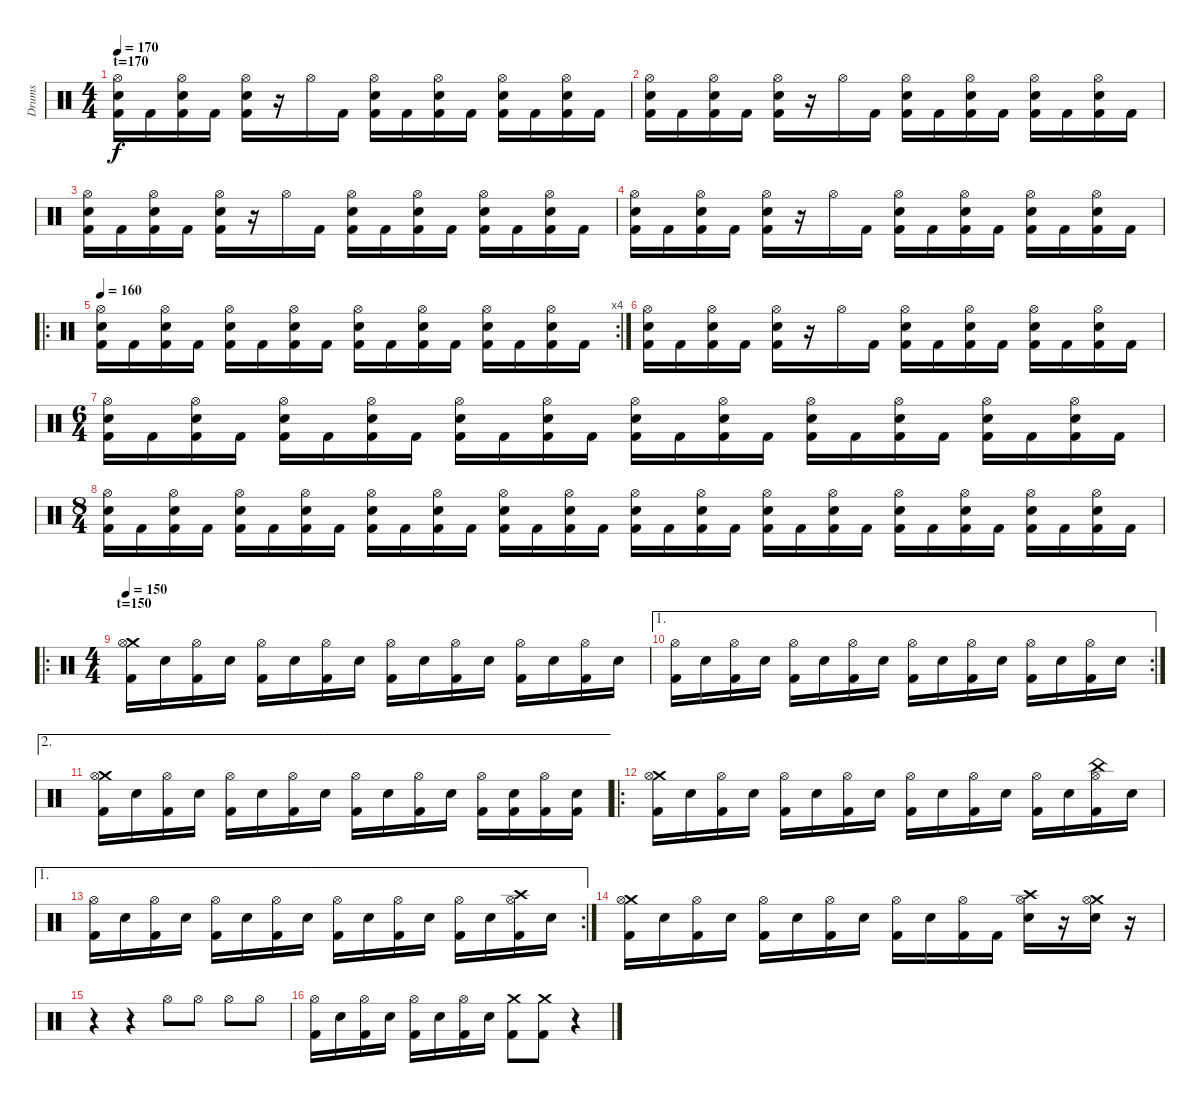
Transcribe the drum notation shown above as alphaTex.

\track ("Drums" "Drums") {instrument percussion}
\staff {score}
\articulation defaults
\ts (4 4)
\section ("" "t=170")
\tempo 170
\clef neutral
\ks c
("Hi-Hat (open)" "Electric Snare (hit)" "Kick (hit) 2").16{dy f} "Kick (hit) 2".16 ("Hi-Hat (open)" "Electric Snare (hit)" "Kick (hit) 2").16 "Kick (hit) 2".16 ("Hi-Hat (open)" "Electric Snare (hit)" "Kick (hit) 2").16 r.16 "Hi-Hat (open)".16 "Kick (hit) 2".16 ("Hi-Hat (open)" "Electric Snare (hit)" "Kick (hit) 2").16 "Kick (hit) 2".16 ("Hi-Hat (open)" "Electric Snare (hit)" "Kick (hit) 2").16 "Kick (hit) 2".16 ("Hi-Hat (open)" "Electric Snare (hit)" "Kick (hit) 2").16 "Kick (hit) 2".16 ("Hi-Hat (open)" "Electric Snare (hit)" "Kick (hit) 2").16 "Kick (hit) 2".16 |
("Hi-Hat (open)" "Electric Snare (hit)" "Kick (hit) 2").16 "Kick (hit) 2".16 ("Hi-Hat (open)" "Electric Snare (hit)" "Kick (hit) 2").16 "Kick (hit) 2".16 ("Hi-Hat (open)" "Electric Snare (hit)" "Kick (hit) 2").16 r.16 "Hi-Hat (open)".16 "Kick (hit) 2".16 ("Hi-Hat (open)" "Electric Snare (hit)" "Kick (hit) 2").16 "Kick (hit) 2".16 ("Hi-Hat (open)" "Electric Snare (hit)" "Kick (hit) 2").16 "Kick (hit) 2".16 ("Hi-Hat (open)" "Electric Snare (hit)" "Kick (hit) 2").16 "Kick (hit) 2".16 ("Hi-Hat (open)" "Electric Snare (hit)" "Kick (hit) 2").16 "Kick (hit) 2".16 |
("Hi-Hat (open)" "Electric Snare (hit)" "Kick (hit) 2").16 "Kick (hit) 2".16 ("Hi-Hat (open)" "Electric Snare (hit)" "Kick (hit) 2").16 "Kick (hit) 2".16 ("Hi-Hat (open)" "Electric Snare (hit)" "Kick (hit) 2").16 r.16 "Hi-Hat (open)".16 "Kick (hit) 2".16 ("Hi-Hat (open)" "Electric Snare (hit)" "Kick (hit) 2").16 "Kick (hit) 2".16 ("Hi-Hat (open)" "Electric Snare (hit)" "Kick (hit) 2").16 "Kick (hit) 2".16 ("Hi-Hat (open)" "Electric Snare (hit)" "Kick (hit) 2").16 "Kick (hit) 2".16 ("Hi-Hat (open)" "Electric Snare (hit)" "Kick (hit) 2").16 "Kick (hit) 2".16 |
("Hi-Hat (open)" "Electric Snare (hit)" "Kick (hit) 2").16 "Kick (hit) 2".16 ("Hi-Hat (open)" "Electric Snare (hit)" "Kick (hit) 2").16 "Kick (hit) 2".16 ("Hi-Hat (open)" "Electric Snare (hit)" "Kick (hit) 2").16 r.16 "Hi-Hat (open)".16 "Kick (hit) 2".16 ("Hi-Hat (open)" "Electric Snare (hit)" "Kick (hit) 2").16 "Kick (hit) 2".16 ("Hi-Hat (open)" "Electric Snare (hit)" "Kick (hit) 2").16 "Kick (hit) 2".16 ("Hi-Hat (open)" "Electric Snare (hit)" "Kick (hit) 2").16 "Kick (hit) 2".16 ("Hi-Hat (open)" "Electric Snare (hit)" "Kick (hit) 2").16 "Kick (hit) 2".16 |
\ro
\rc 4
\tempo 160
("Hi-Hat (open)" "Electric Snare (hit)" "Kick (hit) 2").16 "Kick (hit) 2".16 ("Hi-Hat (open)" "Electric Snare (hit)" "Kick (hit) 2").16 "Kick (hit) 2".16 ("Hi-Hat (open)" "Electric Snare (hit)" "Kick (hit) 2").16 "Kick (hit) 2".16 ("Hi-Hat (open)" "Electric Snare (hit)" "Kick (hit) 2").16 "Kick (hit) 2".16 ("Hi-Hat (open)" "Electric Snare (hit)" "Kick (hit) 2").16 "Kick (hit) 2".16 ("Hi-Hat (open)" "Electric Snare (hit)" "Kick (hit) 2").16 "Kick (hit) 2".16 ("Hi-Hat (open)" "Electric Snare (hit)" "Kick (hit) 2").16 "Kick (hit) 2".16 ("Hi-Hat (open)" "Electric Snare (hit)" "Kick (hit) 2").16 "Kick (hit) 2".16 |
("Hi-Hat (open)" "Electric Snare (hit)" "Kick (hit) 2").16 "Kick (hit) 2".16 ("Hi-Hat (open)" "Electric Snare (hit)" "Kick (hit) 2").16 "Kick (hit) 2".16 ("Hi-Hat (open)" "Electric Snare (hit)" "Kick (hit) 2").16 r.16 "Hi-Hat (open)".16 "Kick (hit) 2".16 ("Hi-Hat (open)" "Electric Snare (hit)" "Kick (hit) 2").16 "Kick (hit) 2".16 ("Hi-Hat (open)" "Electric Snare (hit)" "Kick (hit) 2").16 "Kick (hit) 2".16 ("Hi-Hat (open)" "Electric Snare (hit)" "Kick (hit) 2").16 "Kick (hit) 2".16 ("Hi-Hat (open)" "Electric Snare (hit)" "Kick (hit) 2").16 "Kick (hit) 2".16 |
\ts (6 4)
("Hi-Hat (open)" "Electric Snare (hit)" "Kick (hit) 2").16 "Kick (hit) 2".16 ("Hi-Hat (open)" "Electric Snare (hit)" "Kick (hit) 2").16 "Kick (hit) 2".16 ("Hi-Hat (open)" "Electric Snare (hit)" "Kick (hit) 2").16 "Kick (hit) 2".16 ("Hi-Hat (open)" "Electric Snare (hit)" "Kick (hit) 2").16 "Kick (hit) 2".16 ("Hi-Hat (open)" "Electric Snare (hit)" "Kick (hit) 2").16 "Kick (hit) 2".16 ("Hi-Hat (open)" "Electric Snare (hit)" "Kick (hit) 2").16 "Kick (hit) 2".16 ("Hi-Hat (open)" "Electric Snare (hit)" "Kick (hit) 2").16 "Kick (hit) 2".16 ("Hi-Hat (open)" "Electric Snare (hit)" "Kick (hit) 2").16 "Kick (hit) 2".16 ("Hi-Hat (open)" "Electric Snare (hit)" "Kick (hit) 2").16 "Kick (hit) 2".16 ("Hi-Hat (open)" "Electric Snare (hit)" "Kick (hit) 2").16 "Kick (hit) 2".16 ("Hi-Hat (open)" "Electric Snare (hit)" "Kick (hit) 2").16 "Kick (hit) 2".16 ("Hi-Hat (open)" "Electric Snare (hit)" "Kick (hit) 2").16 "Kick (hit) 2".16 |
\ts (8 4)
("Hi-Hat (open)" "Electric Snare (hit)" "Kick (hit) 2").16 "Kick (hit) 2".16 ("Hi-Hat (open)" "Electric Snare (hit)" "Kick (hit) 2").16 "Kick (hit) 2".16 ("Hi-Hat (open)" "Electric Snare (hit)" "Kick (hit) 2").16 "Kick (hit) 2".16 ("Hi-Hat (open)" "Electric Snare (hit)" "Kick (hit) 2").16 "Kick (hit) 2".16 ("Hi-Hat (open)" "Electric Snare (hit)" "Kick (hit) 2").16 "Kick (hit) 2".16 ("Hi-Hat (open)" "Electric Snare (hit)" "Kick (hit) 2").16 "Kick (hit) 2".16 ("Hi-Hat (open)" "Electric Snare (hit)" "Kick (hit) 2").16 "Kick (hit) 2".16 ("Hi-Hat (open)" "Electric Snare (hit)" "Kick (hit) 2").16 "Kick (hit) 2".16 ("Hi-Hat (open)" "Electric Snare (hit)" "Kick (hit) 2").16 "Kick (hit) 2".16 ("Hi-Hat (open)" "Electric Snare (hit)" "Kick (hit) 2").16 "Kick (hit) 2".16 ("Hi-Hat (open)" "Electric Snare (hit)" "Kick (hit) 2").16 "Kick (hit) 2".16 ("Hi-Hat (open)" "Electric Snare (hit)" "Kick (hit) 2").16 "Kick (hit) 2".16 ("Hi-Hat (open)" "Electric Snare (hit)" "Kick (hit) 2").16 "Kick (hit) 2".16 ("Hi-Hat (open)" "Electric Snare (hit)" "Kick (hit) 2").16 "Kick (hit) 2".16 ("Hi-Hat (open)" "Electric Snare (hit)" "Kick (hit) 2").16 "Kick (hit) 2".16 ("Hi-Hat (open)" "Electric Snare (hit)" "Kick (hit) 2").16 "Kick (hit) 2".16 |
\ro
\ts (4 4)
\section ("" "t=150")
\tempo 150
("Crash medium (hit)" "Hi-Hat (open)" "Kick (hit) 2").16 "Electric Snare (hit)".16 ("Hi-Hat (open)" "Kick (hit) 2").16 "Electric Snare (hit)".16 ("Hi-Hat (open)" "Kick (hit) 2").16 "Electric Snare (hit)".16 ("Hi-Hat (open)" "Kick (hit) 2").16 "Electric Snare (hit)".16 ("Hi-Hat (open)" "Kick (hit) 2").16 "Electric Snare (hit)".16 ("Hi-Hat (open)" "Kick (hit) 2").16 "Electric Snare (hit)".16 ("Hi-Hat (open)" "Kick (hit) 2").16 "Electric Snare (hit)".16 ("Hi-Hat (open)" "Kick (hit) 2").16 "Electric Snare (hit)".16 |
\ae 1
\rc 2
("Hi-Hat (open)" "Kick (hit) 2").16 "Electric Snare (hit)".16 ("Hi-Hat (open)" "Kick (hit) 2").16 "Electric Snare (hit)".16 ("Hi-Hat (open)" "Kick (hit) 2").16 "Electric Snare (hit)".16 ("Hi-Hat (open)" "Kick (hit) 2").16 "Electric Snare (hit)".16 ("Hi-Hat (open)" "Kick (hit) 2").16 "Electric Snare (hit)".16 ("Hi-Hat (open)" "Kick (hit) 2").16 "Electric Snare (hit)".16 ("Hi-Hat (open)" "Kick (hit) 2").16 "Electric Snare (hit)".16 ("Hi-Hat (open)" "Kick (hit) 2").16 "Electric Snare (hit)".16 |
\ae 2
("Crash medium (hit)" "Hi-Hat (open)" "Kick (hit) 2").16 "Electric Snare (hit)".16 ("Hi-Hat (open)" "Kick (hit) 2").16 "Electric Snare (hit)".16 ("Hi-Hat (open)" "Kick (hit) 2").16 "Electric Snare (hit)".16 ("Hi-Hat (open)" "Kick (hit) 2").16 "Electric Snare (hit)".16 ("Hi-Hat (open)" "Kick (hit) 2").16 "Electric Snare (hit)".16 ("Hi-Hat (open)" "Kick (hit) 2").16 "Electric Snare (hit)".16 ("Hi-Hat (open)" "Kick (hit) 2").16 ("Kick (hit) 2" "Electric Snare (hit)").16 ("Hi-Hat (open)" "Kick (hit) 2").16 ("Kick (hit) 2" "Electric Snare (hit)").16 |
\ro
("Crash medium (hit)" "Hi-Hat (open)" "Kick (hit) 2").16 "Electric Snare (hit)".16 ("Hi-Hat (open)" "Kick (hit) 2").16 "Electric Snare (hit)".16 ("Hi-Hat (open)" "Kick (hit) 2").16 "Electric Snare (hit)".16 ("Hi-Hat (open)" "Kick (hit) 2").16 "Electric Snare (hit)".16 ("Hi-Hat (open)" "Kick (hit) 2").16 "Electric Snare (hit)".16 ("Hi-Hat (open)" "Kick (hit) 2").16 "Electric Snare (hit)".16 ("Hi-Hat (open)" "Kick (hit) 2").16 "Electric Snare (hit)".16 ("China (hit)" "Hi-Hat (open)" "Kick (hit) 2").16 "Electric Snare (hit)".16 |
\ae 1
\rc 2
("Hi-Hat (open)" "Kick (hit) 2").16 "Electric Snare (hit)".16 ("Hi-Hat (open)" "Kick (hit) 2").16 "Electric Snare (hit)".16 ("Hi-Hat (open)" "Kick (hit) 2").16 "Electric Snare (hit)".16 ("Hi-Hat (open)" "Kick (hit) 2").16 "Electric Snare (hit)".16 ("Hi-Hat (open)" "Kick (hit) 2").16 "Electric Snare (hit)".16 ("Hi-Hat (open)" "Kick (hit) 2").16 "Electric Snare (hit)".16 ("Hi-Hat (open)" "Kick (hit) 2").16 "Electric Snare (hit)".16 ("Crash high (hit)" "Hi-Hat (open)" "Kick (hit) 2").16 "Electric Snare (hit)".16 |
("Crash medium (hit)" "Hi-Hat (open)" "Kick (hit) 2").16 "Electric Snare (hit)".16 ("Hi-Hat (open)" "Kick (hit) 2").16 "Electric Snare (hit)".16 ("Hi-Hat (open)" "Kick (hit) 2").16 "Electric Snare (hit)".16 ("Hi-Hat (open)" "Kick (hit) 2").16 "Electric Snare (hit)".16 ("Hi-Hat (open)" "Kick (hit) 2").16 "Electric Snare (hit)".16 ("Hi-Hat (open)" "Kick (hit) 2").16 "Kick (hit) 2".16 ("Crash high (hit)" "Hi-Hat (open)" "Electric Snare (hit)").16 r.16 ("Crash medium (hit)" "Hi-Hat (open)" "Electric Snare (hit)").16 r.16 |
r.4 r.4 "Hi-Hat (open)".8 "Hi-Hat (open)".8 "Hi-Hat (open)".8 "Hi-Hat (open)".8 |
("Hi-Hat (open)" "Kick (hit) 2").16 "Electric Snare (hit)".16 ("Hi-Hat (open)" "Kick (hit) 2").16 "Electric Snare (hit)".16 ("Hi-Hat (open)" "Kick (hit) 2").16 "Electric Snare (hit)".16 ("Hi-Hat (open)" "Kick (hit) 2").16 "Electric Snare (hit)".16 ("Crash medium (hit)" "Kick (hit) 2").8 ("Crash medium (hit)" "Kick (hit) 2").8 r.4
